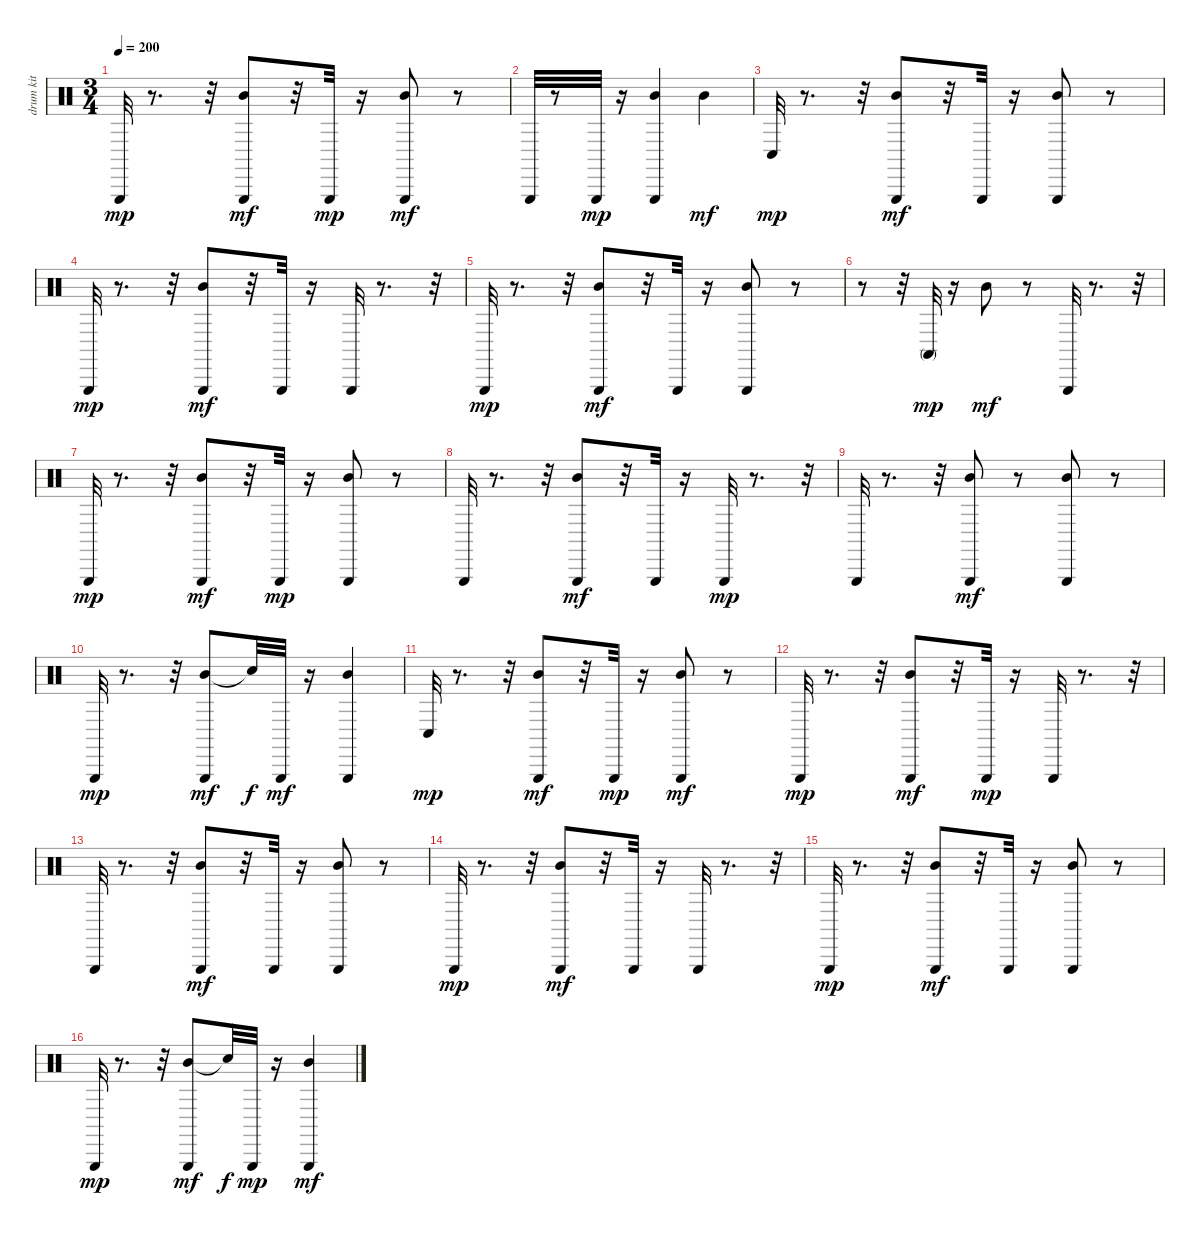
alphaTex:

\track (" drum kit (hi-hat/cymbals)" " drum kit ") {instrument percussion}
\staff {score}
\articulation defaults
\ts (3 4)
\tempo 200
\clef neutral
\ks c "Triangle (hit)".32{dy mp}
r.8{d} r.32 ("Mid Tom (hit)" "Triangle (hit)").8{dy mf} r.32 "Triangle (hit)".32{dy mp} r.16 ("Mid Tom (hit)" "Triangle (hit)").8{dy mf} r.8 |
"Triangle (hit)".32 r.8 "Triangle (hit)".32{dy mp} r.16 ("Mid Tom (hit)" "Triangle (hit)").4 "Mid Tom (hit)".4{dy mf} |
"Conga low (hit)".32{dy mp} r.8{d} r.32 ("Triangle (hit)" "Mid Tom (hit)").8{dy mf} r.32 "Triangle (hit)".32 r.16 ("Triangle (hit)" "Mid Tom (hit)").8 r.8 |
"Triangle (hit)".32{dy mp} r.8{d} r.32 ("Mid Tom (hit)" "Triangle (hit)").8{dy mf} r.32 "Triangle (hit)".32 r.16 "Triangle (hit)".32 r.8{d} r.32 |
"Triangle (hit)".32{dy mp} r.8{d} r.32 ("Mid Tom (hit)" "Triangle (hit)").8{dy mf} r.32 "Triangle (hit)".32 r.16 ("Mid Tom (hit)" "Triangle (hit)").8 r.8 |
r.8 r.32 "Conga high (mute)".32{dy mp} r.16 "Mid Tom (hit)".8{dy mf} r.8 "Triangle (hit)".32 r.8{d} r.32 |
"Triangle (hit)".32{dy mp} r.8{d} r.32 ("Mid Tom (hit)" "Triangle (hit)").8{dy mf} r.32 "Triangle (hit)".32{dy mp} r.16 ("Mid Tom (hit)" "Triangle (hit)").8 r.8 |
"Triangle (hit)".32 r.8{d} r.32 ("Triangle (hit)" "Mid Tom (hit)").8{dy mf} r.32 "Triangle (hit)".32 r.16 "Triangle (hit)".32{dy mp} r.8{d} r.32 |
"Triangle (hit)".32 r.8{d} r.32 ("Mid Tom (hit)" "Triangle (hit)").8{dy mf} r.8 ("Mid Tom (hit)" "Triangle (hit)").8 r.8 |
"Triangle (hit)".32{dy mp} r.8{d} r.32 ("Mid Tom (hit)" "Triangle (hit)").8{dy mf} "Snare (hit)"{t}.32{dy f} "Triangle (hit)".32{dy mf} r.16 ("Mid Tom (hit)" "Triangle (hit)").4 |
"Conga low (hit)".32{dy mp} r.8{d} r.32 ("Mid Tom (hit)" "Triangle (hit)").8{dy mf} r.32 "Triangle (hit)".32{dy mp} r.16 ("Mid Tom (hit)" "Triangle (hit)").8{dy mf} r.8 |
"Triangle (hit)".32{dy mp} r.8{d} r.32 ("Mid Tom (hit)" "Triangle (hit)").8{dy mf} r.32 "Triangle (hit)".32{dy mp} r.16 "Triangle (hit)".32 r.8{d} r.32 |
"Triangle (hit)".32 r.8{d} r.32 ("Triangle (hit)" "Mid Tom (hit)").8{dy mf} r.32 "Triangle (hit)".32 r.16 ("Triangle (hit)" "Mid Tom (hit)").8 r.8 |
"Triangle (hit)".32{dy mp} r.8{d} r.32 ("Mid Tom (hit)" "Triangle (hit)").8{dy mf} r.32 "Triangle (hit)".32 r.16 "Triangle (hit)".32 r.8{d} r.32 |
"Triangle (hit)".32{dy mp} r.8{d} r.32 ("Mid Tom (hit)" "Triangle (hit)").8{dy mf} r.32 "Triangle (hit)".32 r.16 ("Mid Tom (hit)" "Triangle (hit)").8 r.8 |
"Triangle (hit)".32{dy mp} r.8{d} r.32 ("Mid Tom (hit)" "Triangle (hit)").8{dy mf} "Snare (hit)"{t}.32{dy f} "Triangle (hit)".32{dy mp} r.16 ("Mid Tom (hit)" "Triangle (hit)").4{dy mf}
